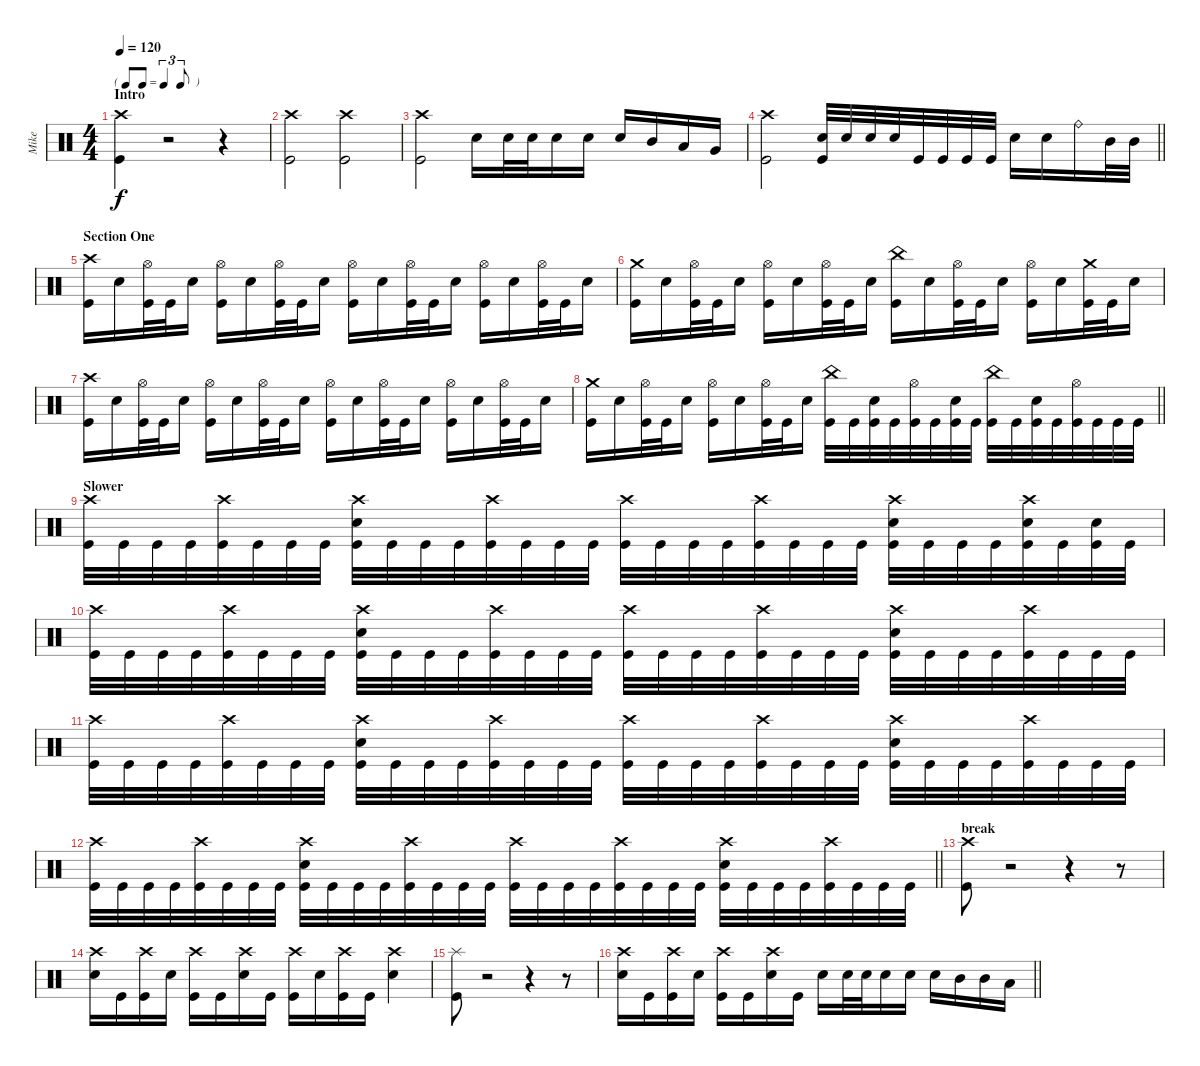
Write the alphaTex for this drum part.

\track ("Mike" "Mike") {instrument percussion}
\staff {score}
\articulation defaults
\ts (4 4)
\tf triplet8th
\section ("" "Intro")
\tempo 120
\clef neutral
\ks c
("Crash high (hit)" "Kick (hit)").4{dy f} r.2 r.4 |
("Crash high (hit)" "Kick (hit)").2 ("Crash high (hit)" "Kick (hit)").2 |
("Crash high (hit)" "Kick (hit)").2 "Snare (hit) 2".16 "Snare (hit) 2".32 "Snare (hit) 2".32 "Snare (hit) 2".16 "Snare (hit) 2".16 "Snare (hit) 2".16 "Mid Tom (hit)".16 "Low Tom (hit)".16 "Very Low Tom (hit)".16 |
\barLineRight lightlight
("Crash high (hit)" "Kick (hit)").2 ("Snare (hit) 2" "Kick (hit)").32 "Snare (hit) 2".32 "Snare (hit) 2".32 "Snare (hit) 2".32 "Kick (hit)".32 "Kick (hit)".32 "Kick (hit)".32 "Kick (hit)".32 "Snare (hit) 2".16 "Snare (hit) 2".16 "Ride (bell)".16 "Mid Tom (hit)".32 "Mid Tom (hit)".32 |
\section ("" "Section One")
("Crash high (hit)" "Kick (hit)").16 "Snare (hit) 2".16 ("Hi-Hat (open)" "Kick (hit)").32 "Kick (hit)".32 "Snare (hit) 2".16 ("Hi-Hat (open)" "Kick (hit)").16 "Snare (hit) 2".16 ("Hi-Hat (open)" "Kick (hit)").32 "Kick (hit)".32 "Snare (hit) 2".16 ("Hi-Hat (open)" "Kick (hit)").16 "Snare (hit) 2".16 ("Hi-Hat (open)" "Kick (hit)").32 "Kick (hit)".32 "Snare (hit) 2".16 ("Hi-Hat (open)" "Kick (hit)").16 "Snare (hit) 2".16 ("Hi-Hat (open)" "Kick (hit)").32 "Kick (hit)".32 "Snare (hit) 2".16 |
("Crash medium (hit)" "Kick (hit)").16 "Snare (hit) 2".16 ("Hi-Hat (open)" "Kick (hit)").32 "Kick (hit)".32 "Snare (hit) 2".16 ("Hi-Hat (open)" "Kick (hit)").16 "Snare (hit) 2".16 ("Hi-Hat (open)" "Kick (hit)").32 "Kick (hit)".32 "Snare (hit) 2".16 ("China (hit)" "Kick (hit)").16 "Snare (hit) 2".16 ("Hi-Hat (open)" "Kick (hit)").32 "Kick (hit)".32 "Snare (hit) 2".16 ("Hi-Hat (open)" "Kick (hit)").16 "Snare (hit) 2".16 ("Crash medium (hit)" "Kick (hit)").32 "Kick (hit)".32 "Snare (hit) 2".16 |
("Crash high (hit)" "Kick (hit)").16 "Snare (hit) 2".16 ("Hi-Hat (open)" "Kick (hit)").32 "Kick (hit)".32 "Snare (hit) 2".16 ("Hi-Hat (open)" "Kick (hit)").16 "Snare (hit) 2".16 ("Hi-Hat (open)" "Kick (hit)").32 "Kick (hit)".32 "Snare (hit) 2".16 ("Hi-Hat (open)" "Kick (hit)").16 "Snare (hit) 2".16 ("Hi-Hat (open)" "Kick (hit)").32 "Kick (hit)".32 "Snare (hit) 2".16 ("Hi-Hat (open)" "Kick (hit)").16 "Snare (hit) 2".16 ("Hi-Hat (open)" "Kick (hit)").32 "Kick (hit)".32 "Snare (hit) 2".16 |
\barLineRight lightlight
("Crash medium (hit)" "Kick (hit)").16 "Snare (hit) 2".16 ("Hi-Hat (open)" "Kick (hit)").32 "Kick (hit)".32 "Snare (hit) 2".16 ("Hi-Hat (open)" "Kick (hit)").16 "Snare (hit) 2".16 ("Hi-Hat (open)" "Kick (hit)").32 "Kick (hit)".32 "Snare (hit) 2".16 ("China (hit)" "Kick (hit)").32 "Kick (hit)".32 ("Snare (hit) 2" "Kick (hit)").32 "Kick (hit)".32 ("Hi-Hat (open)" "Kick (hit)").32 "Kick (hit)".32 ("Snare (hit) 2" "Kick (hit)").32 "Kick (hit)".32 ("China (hit)" "Kick (hit)").32 "Kick (hit)".32 ("Snare (hit) 2" "Kick (hit)").32 "Kick (hit)".32 ("Hi-Hat (open)" "Kick (hit)").32 "Kick (hit)".32 "Kick (hit)".32 "Kick (hit)".32 |
\section ("" "Slower")
("Crash high (hit)" "Kick (hit)").32 "Kick (hit)".32 "Kick (hit)".32 "Kick (hit)".32 ("Crash high (hit)" "Kick (hit)").32 "Kick (hit)".32 "Kick (hit)".32 "Kick (hit)".32 ("Crash high (hit)" "Snare (hit) 2" "Kick (hit)").32 "Kick (hit)".32 "Kick (hit)".32 "Kick (hit)".32 ("Crash high (hit)" "Kick (hit)").32 "Kick (hit)".32 "Kick (hit)".32 "Kick (hit)".32 ("Crash high (hit)" "Kick (hit)").32 "Kick (hit)".32 "Kick (hit)".32 "Kick (hit)".32 ("Crash high (hit)" "Kick (hit)").32 "Kick (hit)".32 "Kick (hit)".32 "Kick (hit)".32 ("Crash high (hit)" "Snare (hit) 2" "Kick (hit)").32 "Kick (hit)".32 "Kick (hit)".32 "Kick (hit)".32 ("Crash high (hit)" "Snare (hit) 2" "Kick (hit)").32 "Kick (hit)".32 ("Snare (hit) 2" "Kick (hit)").32 "Kick (hit)".32 |
("Crash high (hit)" "Kick (hit)").32 "Kick (hit)".32 "Kick (hit)".32 "Kick (hit)".32 ("Crash high (hit)" "Kick (hit)").32 "Kick (hit)".32 "Kick (hit)".32 "Kick (hit)".32 ("Crash high (hit)" "Snare (hit) 2" "Kick (hit)").32 "Kick (hit)".32 "Kick (hit)".32 "Kick (hit)".32 ("Crash high (hit)" "Kick (hit)").32 "Kick (hit)".32 "Kick (hit)".32 "Kick (hit)".32 ("Crash high (hit)" "Kick (hit)").32 "Kick (hit)".32 "Kick (hit)".32 "Kick (hit)".32 ("Crash high (hit)" "Kick (hit)").32 "Kick (hit)".32 "Kick (hit)".32 "Kick (hit)".32 ("Crash high (hit)" "Snare (hit) 2" "Kick (hit)").32 "Kick (hit)".32 "Kick (hit)".32 "Kick (hit)".32 ("Crash high (hit)" "Kick (hit)").32 "Kick (hit)".32 "Kick (hit)".32 "Kick (hit)".32 |
("Crash high (hit)" "Kick (hit)").32 "Kick (hit)".32 "Kick (hit)".32 "Kick (hit)".32 ("Crash high (hit)" "Kick (hit)").32 "Kick (hit)".32 "Kick (hit)".32 "Kick (hit)".32 ("Crash high (hit)" "Snare (hit) 2" "Kick (hit)").32 "Kick (hit)".32 "Kick (hit)".32 "Kick (hit)".32 ("Crash high (hit)" "Kick (hit)").32 "Kick (hit)".32 "Kick (hit)".32 "Kick (hit)".32 ("Crash high (hit)" "Kick (hit)").32 "Kick (hit)".32 "Kick (hit)".32 "Kick (hit)".32 ("Crash high (hit)" "Kick (hit)").32 "Kick (hit)".32 "Kick (hit)".32 "Kick (hit)".32 ("Crash high (hit)" "Snare (hit) 2" "Kick (hit)").32 "Kick (hit)".32 "Kick (hit)".32 "Kick (hit)".32 ("Crash high (hit)" "Kick (hit)").32 "Kick (hit)".32 "Kick (hit)".32 "Kick (hit)".32 |
\barLineRight lightlight
("Crash high (hit)" "Kick (hit)").32 "Kick (hit)".32 "Kick (hit)".32 "Kick (hit)".32 ("Crash high (hit)" "Kick (hit)").32 "Kick (hit)".32 "Kick (hit)".32 "Kick (hit)".32 ("Crash high (hit)" "Snare (hit) 2" "Kick (hit)").32 "Kick (hit)".32 "Kick (hit)".32 "Kick (hit)".32 ("Crash high (hit)" "Kick (hit)").32 "Kick (hit)".32 "Kick (hit)".32 "Kick (hit)".32 ("Crash high (hit)" "Kick (hit)").32 "Kick (hit)".32 "Kick (hit)".32 "Kick (hit)".32 ("Crash high (hit)" "Kick (hit)").32 "Kick (hit)".32 "Kick (hit)".32 "Kick (hit)".32 ("Crash high (hit)" "Snare (hit) 2" "Kick (hit)").32 "Kick (hit)".32 "Kick (hit)".32 "Kick (hit)".32 ("Crash high (hit)" "Kick (hit)").32 "Kick (hit)".32 "Kick (hit)".32 "Kick (hit)".32 |
\section ("" "break")
("Crash high (hit)" "Kick (hit)").8 r.2 r.4 r.8 |
("Crash high (hit)" "Snare (hit) 2").16 "Kick (hit)".16 ("Crash high (hit)" "Kick (hit)").16 "Snare (hit) 2".16 ("Crash high (hit)" "Kick (hit)").16 "Kick (hit)".16 ("Crash high (hit)" "Snare (hit) 2").16 "Kick (hit)".16 ("Crash high (hit)" "Kick (hit)").16 "Snare (hit) 2".16 ("Crash high (hit)" "Kick (hit)").16 "Kick (hit)".16 ("Crash high (hit)" "Snare (hit) 2").4 |
("Splash (hit)" "Kick (hit)").8 r.2 r.4 r.8 |
\barLineRight lightlight
("Crash high (hit)" "Snare (hit) 2").16 "Kick (hit)".16 ("Crash high (hit)" "Kick (hit)").16 "Snare (hit) 2".16 ("Crash high (hit)" "Kick (hit)").16 "Kick (hit)".16 ("Crash high (hit)" "Snare (hit) 2").16 "Kick (hit)".16 "Snare (hit) 2".16 "Snare (hit) 2".32 "Snare (hit) 2".32 "Snare (hit) 2".16 "Snare (hit) 2".16 "Snare (hit) 2".16 "Mid Tom (hit)".16 "Mid Tom (hit)".16 "Low Tom (hit)".16
